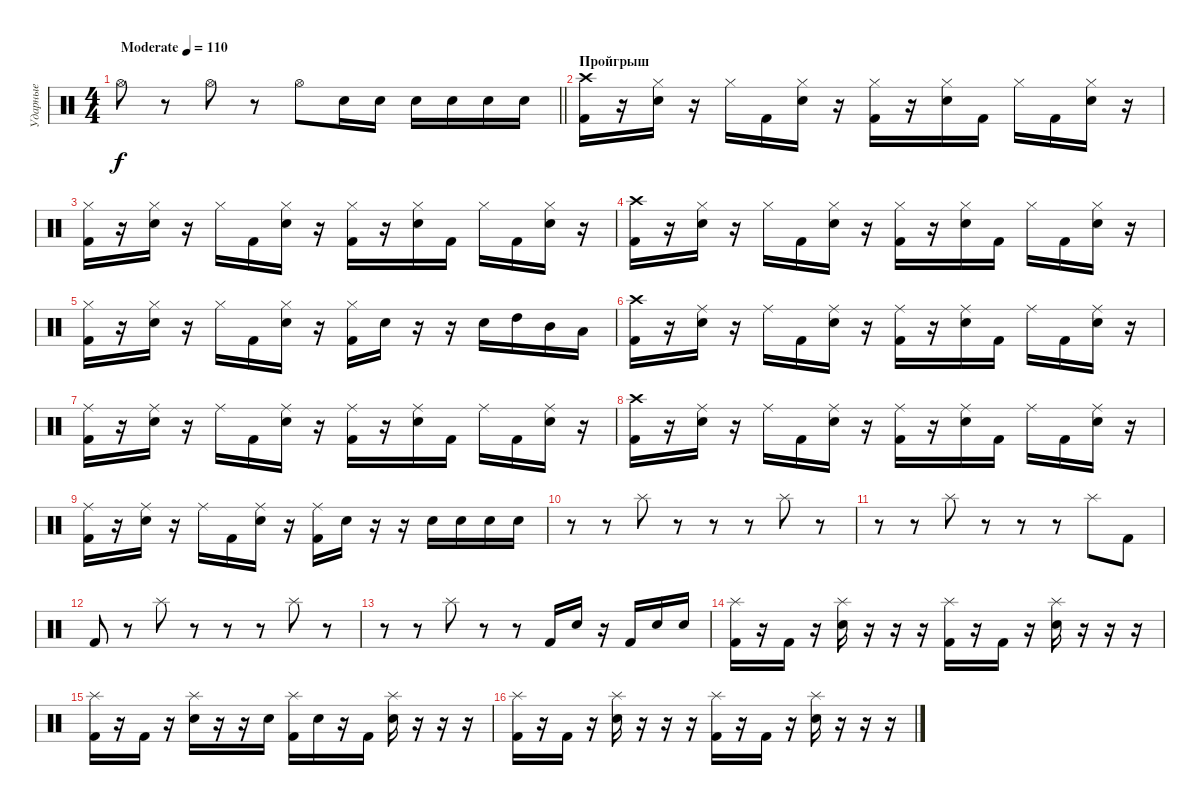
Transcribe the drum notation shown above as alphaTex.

\track ("Ударные" "Ударные") {instrument percussion}
\staff {score}
\articulation defaults
\ts (4 4)
\tempo (110 "Moderate")
\clef neutral
\barLineRight lightlight
\ks c "Hi-Hat (open)".8{dy f}
r.8 "Hi-Hat (open)".8 r.8 "Hi-Hat (open)".8 "Electric Snare (hit)".16 "Electric Snare (hit)".16 "Electric Snare (hit)".16 "Electric Snare (hit)".16 "Electric Snare (hit)".16 "Electric Snare (hit)".16 |
\section ("" "Пройгрыш")
("Crash high (hit)" "Kick (hit) 2").16 r.16 ("Hi-Hat (closed)" "Electric Snare (hit)").16 r.16 "Hi-Hat (closed)".16 "Kick (hit) 2".16 ("Hi-Hat (closed)" "Electric Snare (hit)").16 r.16 ("Hi-Hat (closed)" "Kick (hit) 2").16 r.16 ("Hi-Hat (closed)" "Electric Snare (hit)").16 "Kick (hit) 2".16 "Hi-Hat (closed)".16 "Kick (hit) 2".16 ("Hi-Hat (closed)" "Electric Snare (hit)").16 r.16 |
("Hi-Hat (closed)" "Kick (hit) 2").16 r.16 ("Hi-Hat (closed)" "Electric Snare (hit)").16 r.16 "Hi-Hat (closed)".16 "Kick (hit) 2".16 ("Hi-Hat (closed)" "Electric Snare (hit)").16 r.16 ("Hi-Hat (closed)" "Kick (hit) 2").16 r.16 ("Hi-Hat (closed)" "Electric Snare (hit)").16 "Kick (hit) 2".16 "Hi-Hat (closed)".16 "Kick (hit) 2".16 ("Hi-Hat (closed)" "Electric Snare (hit)").16 r.16 |
("Crash high (hit)" "Kick (hit) 2").16 r.16 ("Hi-Hat (closed)" "Electric Snare (hit)").16 r.16 "Hi-Hat (closed)".16 "Kick (hit) 2".16 ("Hi-Hat (closed)" "Electric Snare (hit)").16 r.16 ("Hi-Hat (closed)" "Kick (hit) 2").16 r.16 ("Hi-Hat (closed)" "Electric Snare (hit)").16 "Kick (hit) 2".16 "Hi-Hat (closed)".16 "Kick (hit) 2".16 ("Hi-Hat (closed)" "Electric Snare (hit)").16 r.16 |
("Hi-Hat (closed)" "Kick (hit) 2").16 r.16 ("Hi-Hat (closed)" "Electric Snare (hit)").16 r.16 "Hi-Hat (closed)".16 "Kick (hit) 2".16 ("Hi-Hat (closed)" "Electric Snare (hit)").16 r.16 ("Hi-Hat (closed)" "Kick (hit) 2").16 "Electric Snare (hit)".16 r.16 r.16 "Electric Snare (hit)".16 "High Tom (hit)".16 "Mid Tom (hit)".16 "Low Tom (hit)".16 |
("Crash high (hit)" "Kick (hit) 2").16 r.16 ("Ride (middle)" "Electric Snare (hit)").16 r.16 "Ride (middle)".16 "Kick (hit) 2".16 ("Ride (middle)" "Electric Snare (hit)").16 r.16 ("Ride (middle)" "Kick (hit) 2").16 r.16 ("Ride (middle)" "Electric Snare (hit)").16 "Kick (hit) 2".16 "Ride (middle)".16 "Kick (hit) 2".16 ("Ride (middle)" "Electric Snare (hit)").16 r.16 |
("Ride (middle)" "Kick (hit) 2").16 r.16 ("Ride (middle)" "Electric Snare (hit)").16 r.16 "Ride (middle)".16 "Kick (hit) 2".16 ("Ride (middle)" "Electric Snare (hit)").16 r.16 ("Ride (middle)" "Kick (hit) 2").16 r.16 ("Ride (middle)" "Electric Snare (hit)").16 "Kick (hit) 2".16 "Ride (middle)".16 "Kick (hit) 2".16 ("Ride (middle)" "Electric Snare (hit)").16 r.16 |
("Crash high (hit)" "Kick (hit) 2").16 r.16 ("Ride (middle)" "Electric Snare (hit)").16 r.16 "Ride (middle)".16 "Kick (hit) 2".16 ("Ride (middle)" "Electric Snare (hit)").16 r.16 ("Ride (middle)" "Kick (hit) 2").16 r.16 ("Ride (middle)" "Electric Snare (hit)").16 "Kick (hit) 2".16 "Ride (middle)".16 "Kick (hit) 2".16 ("Ride (middle)" "Electric Snare (hit)").16 r.16 |
("Ride (middle)" "Kick (hit) 2").16 r.16 ("Ride (middle)" "Electric Snare (hit)").16 r.16 "Ride (middle)".16 "Kick (hit) 2".16 ("Ride (middle)" "Electric Snare (hit)").16 r.16 ("Ride (middle)" "Kick (hit) 2").16 "Electric Snare (hit)".16 r.16 r.16 "Electric Snare (hit)".16 "Electric Snare (hit)".16 "Electric Snare (hit)".16 "Electric Snare (hit)".16 |
r.8 r.8 "Splash (hit)".8 r.8 r.8 r.8 "Splash (hit)".8 r.8 |
r.8 r.8 "Splash (hit)".8 r.8 r.8 r.8 "Splash (hit)".8 "Kick (hit) 2".8 |
"Kick (hit) 2".8 r.8 "Splash (hit)".8 r.8 r.8 r.8 "Splash (hit)".8 r.8 |
r.8 r.8 "Splash (hit)".8 r.8 r.8 "Kick (hit) 2".16 "Electric Snare (hit)".16 r.16 "Kick (hit) 2".16 "Electric Snare (hit)".16 "Electric Snare (hit)".16 |
("Splash (hit)" "Kick (hit) 2").16 r.16 "Kick (hit) 2".16 r.16 ("Splash (hit)" "Electric Snare (hit)").16 r.16 r.16 r.16 ("Splash (hit)" "Kick (hit) 2").16 r.16 "Kick (hit) 2".16 r.16 ("Splash (hit)" "Electric Snare (hit)").16 r.16 r.16 r.16 |
("Splash (hit)" "Kick (hit) 2").16 r.16 "Kick (hit) 2".16 r.16 ("Splash (hit)" "Electric Snare (hit)").16 r.16 r.16 "Electric Snare (hit)".16 ("Splash (hit)" "Kick (hit) 2").16 "Electric Snare (hit)".16 r.16 "Kick (hit) 2".16 ("Splash (hit)" "Electric Snare (hit)").16 r.16 r.16 r.16 |
("Splash (hit)" "Kick (hit) 2").16 r.16 "Kick (hit) 2".16 r.16 ("Splash (hit)" "Electric Snare (hit)").16 r.16 r.16 r.16 ("Splash (hit)" "Kick (hit) 2").16 r.16 "Kick (hit) 2".16 r.16 ("Splash (hit)" "Electric Snare (hit)").16 r.16 r.16 r.16
